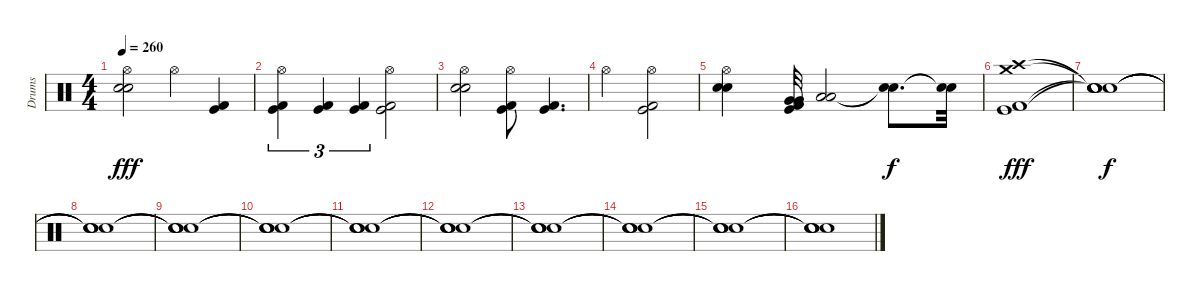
\track ("Drums" "Drums") {instrument percussion}
\staff {score}
\articulation defaults
\ts (4 4)
\tempo 260
\clef neutral
\ks c
("Electric Snare (hit)" "Electric Snare (hit)" "Hi-Hat (open)").2{dy fff} "Hi-Hat (open)".4 ("Kick (hit)" "Kick (hit) 2").4 |
("Kick (hit)" "Kick (hit) 2" "Hi-Hat (open)").4{tu (3 2)} ("Kick (hit)" "Kick (hit) 2").4{tu (3 2)} ("Kick (hit)" "Kick (hit) 2").4{tu (3 2)} ("Kick (hit)" "Kick (hit) 2" "Hi-Hat (open)").2 |
("Electric Snare (hit)" "Electric Snare (hit)" "Hi-Hat (open)").2 ("Kick (hit)" "Kick (hit) 2" "Hi-Hat (open)").8 ("Kick (hit)" "Kick (hit) 2").4{d} |
"Hi-Hat (open)".2 ("Kick (hit)" "Kick (hit) 2" "Hi-Hat (open)").2 |
("Electric Snare (hit)" "Electric Snare (hit)" "Hi-Hat (open)").4 ("Kick (hit)" "Kick (hit) 2" "Very Low Tom (hit)" "Very Low Tom (hit)").32 ("Low Floor Tom (hit)" "Low Floor Tom (hit)").2 ("Snare (hit)"{t} "Snare (hit)"{t}).8{d dy f} ("Snare (hit)"{t} "Snare (hit)"{t}).32 |
("Kick (hit)" "Kick (hit) 2" "Crash high (hit)" "Crash medium (hit)").1{dy fff} |
("Snare (hit)"{t} "Snare (hit)"{t} "Snare (hit)"{t} "Snare (hit)"{t}).1{dy f} |
("Snare (hit)"{t} "Snare (hit)"{t} "Snare (hit)"{t} "Snare (hit)"{t}).1 |
("Snare (hit)"{t} "Snare (hit)"{t} "Snare (hit)"{t} "Snare (hit)"{t}).1 |
("Snare (hit)"{t} "Snare (hit)"{t} "Snare (hit)"{t} "Snare (hit)"{t}).1 |
("Snare (hit)"{t} "Snare (hit)"{t} "Snare (hit)"{t} "Snare (hit)"{t}).1 |
("Snare (hit)"{t} "Snare (hit)"{t} "Snare (hit)"{t} "Snare (hit)"{t}).1 |
("Snare (hit)"{t} "Snare (hit)"{t} "Snare (hit)"{t} "Snare (hit)"{t}).1 |
("Snare (hit)"{t} "Snare (hit)"{t} "Snare (hit)"{t} "Snare (hit)"{t}).1 |
("Snare (hit)"{t} "Snare (hit)"{t} "Snare (hit)"{t} "Snare (hit)"{t}).1 |
("Snare (hit)"{t} "Snare (hit)"{t} "Snare (hit)"{t} "Snare (hit)"{t}).1
